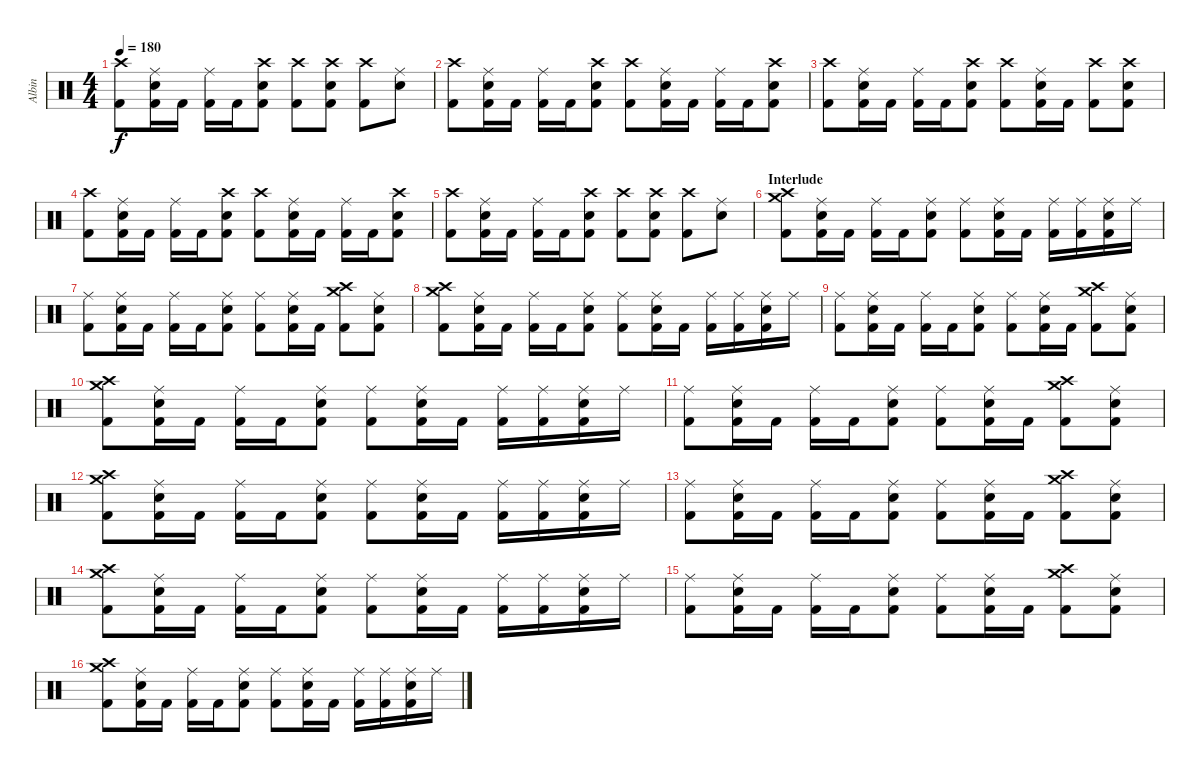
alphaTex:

\track ("Albin" "Albin") {instrument percussion}
\staff {score}
\articulation defaults
\ts (4 4)
\tempo 180
\clef neutral
\ks c
("Kick (hit) 2" "Crash high (hit)").8{dy f} ("Kick (hit) 2" "Electric Snare (hit)" "Ride (middle)").16 "Kick (hit) 2".16 ("Kick (hit) 2" "Ride (middle)").16 "Kick (hit) 2".16 ("Kick (hit) 2" "Electric Snare (hit)" "Crash high (hit)").8 ("Kick (hit) 2" "Crash high (hit)").8 ("Kick (hit) 2" "Electric Snare (hit)" "Crash high (hit)").8 ("Kick (hit) 2" "Crash high (hit)").8 ("Electric Snare (hit)" "Ride (middle)").8 |
("Kick (hit) 2" "Crash high (hit)").8 ("Kick (hit) 2" "Electric Snare (hit)" "Ride (middle)").16 "Kick (hit) 2".16 ("Kick (hit) 2" "Ride (middle)").16 "Kick (hit) 2".16 ("Kick (hit) 2" "Electric Snare (hit)" "Crash high (hit)").8 ("Kick (hit) 2" "Crash high (hit)").8 ("Kick (hit) 2" "Electric Snare (hit)" "Ride (middle)").16 "Kick (hit) 2".16 ("Kick (hit) 2" "Ride (middle)").16 "Kick (hit) 2".16 ("Kick (hit) 2" "Electric Snare (hit)" "Crash high (hit)").8 |
("Kick (hit) 2" "Crash high (hit)").8 ("Kick (hit) 2" "Electric Snare (hit)" "Ride (middle)").16 "Kick (hit) 2".16 ("Kick (hit) 2" "Ride (middle)").16 "Kick (hit) 2".16 ("Kick (hit) 2" "Electric Snare (hit)" "Crash high (hit)").8 ("Kick (hit) 2" "Crash high (hit)").8 ("Kick (hit) 2" "Electric Snare (hit)" "Ride (middle)").16 "Kick (hit) 2".16 ("Kick (hit) 2" "Crash high (hit)").8 ("Kick (hit) 2" "Electric Snare (hit)" "Crash high (hit)").8 |
("Kick (hit) 2" "Crash high (hit)").8 ("Kick (hit) 2" "Electric Snare (hit)" "Ride (middle)").16 "Kick (hit) 2".16 ("Kick (hit) 2" "Ride (middle)").16 "Kick (hit) 2".16 ("Kick (hit) 2" "Electric Snare (hit)" "Crash high (hit)").8 ("Kick (hit) 2" "Crash high (hit)").8 ("Kick (hit) 2" "Electric Snare (hit)" "Ride (middle)").16 "Kick (hit) 2".16 ("Kick (hit) 2" "Ride (middle)").16 "Kick (hit) 2".16 ("Kick (hit) 2" "Electric Snare (hit)" "Crash high (hit)").8 |
("Kick (hit) 2" "Crash high (hit)").8 ("Kick (hit) 2" "Electric Snare (hit)" "Ride (middle)").16 "Kick (hit) 2".16 ("Kick (hit) 2" "Ride (middle)").16 "Kick (hit) 2".16 ("Kick (hit) 2" "Electric Snare (hit)" "Crash high (hit)").8 ("Kick (hit) 2" "Crash high (hit)").8 ("Kick (hit) 2" "Electric Snare (hit)" "Crash high (hit)").8 ("Kick (hit) 2" "Crash high (hit)").8 ("Electric Snare (hit)" "Ride (middle)").8 |
\section ("" "Interlude")
("Kick (hit) 2" "Crash high (hit)" "Crash medium (hit)").8 ("Kick (hit) 2" "Electric Snare (hit)" "Ride (middle)").16 "Kick (hit) 2".16 ("Kick (hit) 2" "Ride (middle)").16 "Kick (hit) 2".16 ("Kick (hit) 2" "Electric Snare (hit)" "Ride (middle)").8 ("Kick (hit) 2" "Ride (middle)").8 ("Kick (hit) 2" "Electric Snare (hit)" "Ride (middle)").16 "Kick (hit) 2".16 ("Kick (hit) 2" "Ride (middle)").16 ("Kick (hit) 2" "Ride (middle)").16 ("Kick (hit) 2" "Electric Snare (hit)" "Ride (middle)").16 "Ride (middle)".16 |
("Kick (hit) 2" "Ride (middle)").8 ("Kick (hit) 2" "Electric Snare (hit)" "Ride (middle)").16 "Kick (hit) 2".16 ("Kick (hit) 2" "Ride (middle)").16 "Kick (hit) 2".16 ("Kick (hit) 2" "Electric Snare (hit)" "Ride (middle)").8 ("Kick (hit) 2" "Ride (middle)").8 ("Kick (hit) 2" "Electric Snare (hit)" "Ride (middle)").16 "Kick (hit) 2".16 ("Kick (hit) 2" "Crash high (hit)" "Crash medium (hit)").8 ("Kick (hit) 2" "Electric Snare (hit)" "Ride (middle)").8 |
("Kick (hit) 2" "Crash high (hit)" "Crash medium (hit)").8 ("Kick (hit) 2" "Electric Snare (hit)" "Ride (middle)").16 "Kick (hit) 2".16 ("Kick (hit) 2" "Ride (middle)").16 "Kick (hit) 2".16 ("Kick (hit) 2" "Electric Snare (hit)" "Ride (middle)").8 ("Kick (hit) 2" "Ride (middle)").8 ("Kick (hit) 2" "Electric Snare (hit)" "Ride (middle)").16 "Kick (hit) 2".16 ("Kick (hit) 2" "Ride (middle)").16 ("Kick (hit) 2" "Ride (middle)").16 ("Kick (hit) 2" "Electric Snare (hit)" "Ride (middle)").16 "Ride (middle)".16 |
("Kick (hit) 2" "Ride (middle)").8 ("Kick (hit) 2" "Electric Snare (hit)" "Ride (middle)").16 "Kick (hit) 2".16 ("Kick (hit) 2" "Ride (middle)").16 "Kick (hit) 2".16 ("Kick (hit) 2" "Electric Snare (hit)" "Ride (middle)").8 ("Kick (hit) 2" "Ride (middle)").8 ("Kick (hit) 2" "Electric Snare (hit)" "Ride (middle)").16 "Kick (hit) 2".16 ("Kick (hit) 2" "Crash high (hit)" "Crash medium (hit)").8 ("Kick (hit) 2" "Electric Snare (hit)" "Ride (middle)").8 |
("Kick (hit) 2" "Crash high (hit)" "Crash medium (hit)").8 ("Kick (hit) 2" "Electric Snare (hit)" "Ride (middle)").16 "Kick (hit) 2".16 ("Kick (hit) 2" "Ride (middle)").16 "Kick (hit) 2".16 ("Kick (hit) 2" "Electric Snare (hit)" "Ride (middle)").8 ("Kick (hit) 2" "Ride (middle)").8 ("Kick (hit) 2" "Electric Snare (hit)" "Ride (middle)").16 "Kick (hit) 2".16 ("Kick (hit) 2" "Ride (middle)").16 ("Kick (hit) 2" "Ride (middle)").16 ("Kick (hit) 2" "Electric Snare (hit)" "Ride (middle)").16 "Ride (middle)".16 |
("Kick (hit) 2" "Ride (middle)").8 ("Kick (hit) 2" "Electric Snare (hit)" "Ride (middle)").16 "Kick (hit) 2".16 ("Kick (hit) 2" "Ride (middle)").16 "Kick (hit) 2".16 ("Kick (hit) 2" "Electric Snare (hit)" "Ride (middle)").8 ("Kick (hit) 2" "Ride (middle)").8 ("Kick (hit) 2" "Electric Snare (hit)" "Ride (middle)").16 "Kick (hit) 2".16 ("Kick (hit) 2" "Crash high (hit)" "Crash medium (hit)").8 ("Kick (hit) 2" "Electric Snare (hit)" "Ride (middle)").8 |
("Kick (hit) 2" "Crash high (hit)" "Crash medium (hit)").8 ("Kick (hit) 2" "Electric Snare (hit)" "Ride (middle)").16 "Kick (hit) 2".16 ("Kick (hit) 2" "Ride (middle)").16 "Kick (hit) 2".16 ("Kick (hit) 2" "Electric Snare (hit)" "Ride (middle)").8 ("Kick (hit) 2" "Ride (middle)").8 ("Kick (hit) 2" "Electric Snare (hit)" "Ride (middle)").16 "Kick (hit) 2".16 ("Kick (hit) 2" "Ride (middle)").16 ("Kick (hit) 2" "Ride (middle)").16 ("Kick (hit) 2" "Electric Snare (hit)" "Ride (middle)").16 "Ride (middle)".16 |
("Kick (hit) 2" "Ride (middle)").8 ("Kick (hit) 2" "Electric Snare (hit)" "Ride (middle)").16 "Kick (hit) 2".16 ("Kick (hit) 2" "Ride (middle)").16 "Kick (hit) 2".16 ("Kick (hit) 2" "Electric Snare (hit)" "Ride (middle)").8 ("Kick (hit) 2" "Ride (middle)").8 ("Kick (hit) 2" "Electric Snare (hit)" "Ride (middle)").16 "Kick (hit) 2".16 ("Kick (hit) 2" "Crash high (hit)" "Crash medium (hit)").8 ("Kick (hit) 2" "Electric Snare (hit)" "Ride (middle)").8 |
("Kick (hit) 2" "Crash high (hit)" "Crash medium (hit)").8 ("Kick (hit) 2" "Electric Snare (hit)" "Ride (middle)").16 "Kick (hit) 2".16 ("Kick (hit) 2" "Ride (middle)").16 "Kick (hit) 2".16 ("Kick (hit) 2" "Electric Snare (hit)" "Ride (middle)").8 ("Kick (hit) 2" "Ride (middle)").8 ("Kick (hit) 2" "Electric Snare (hit)" "Ride (middle)").16 "Kick (hit) 2".16 ("Kick (hit) 2" "Ride (middle)").16 ("Kick (hit) 2" "Ride (middle)").16 ("Kick (hit) 2" "Electric Snare (hit)" "Ride (middle)").16 "Ride (middle)".16 |
("Kick (hit) 2" "Ride (middle)").8 ("Kick (hit) 2" "Electric Snare (hit)" "Ride (middle)").16 "Kick (hit) 2".16 ("Kick (hit) 2" "Ride (middle)").16 "Kick (hit) 2".16 ("Kick (hit) 2" "Electric Snare (hit)" "Ride (middle)").8 ("Kick (hit) 2" "Ride (middle)").8 ("Kick (hit) 2" "Electric Snare (hit)" "Ride (middle)").16 "Kick (hit) 2".16 ("Kick (hit) 2" "Crash high (hit)" "Crash medium (hit)").8 ("Kick (hit) 2" "Electric Snare (hit)" "Ride (middle)").8 |
("Kick (hit) 2" "Crash high (hit)" "Crash medium (hit)").8 ("Kick (hit) 2" "Electric Snare (hit)" "Ride (middle)").16 "Kick (hit) 2".16 ("Kick (hit) 2" "Ride (middle)").16 "Kick (hit) 2".16 ("Kick (hit) 2" "Electric Snare (hit)" "Ride (middle)").8 ("Kick (hit) 2" "Ride (middle)").8 ("Kick (hit) 2" "Electric Snare (hit)" "Ride (middle)").16 "Kick (hit) 2".16 ("Kick (hit) 2" "Ride (middle)").16 ("Kick (hit) 2" "Ride (middle)").16 ("Kick (hit) 2" "Electric Snare (hit)" "Ride (middle)").16 "Ride (middle)".16
